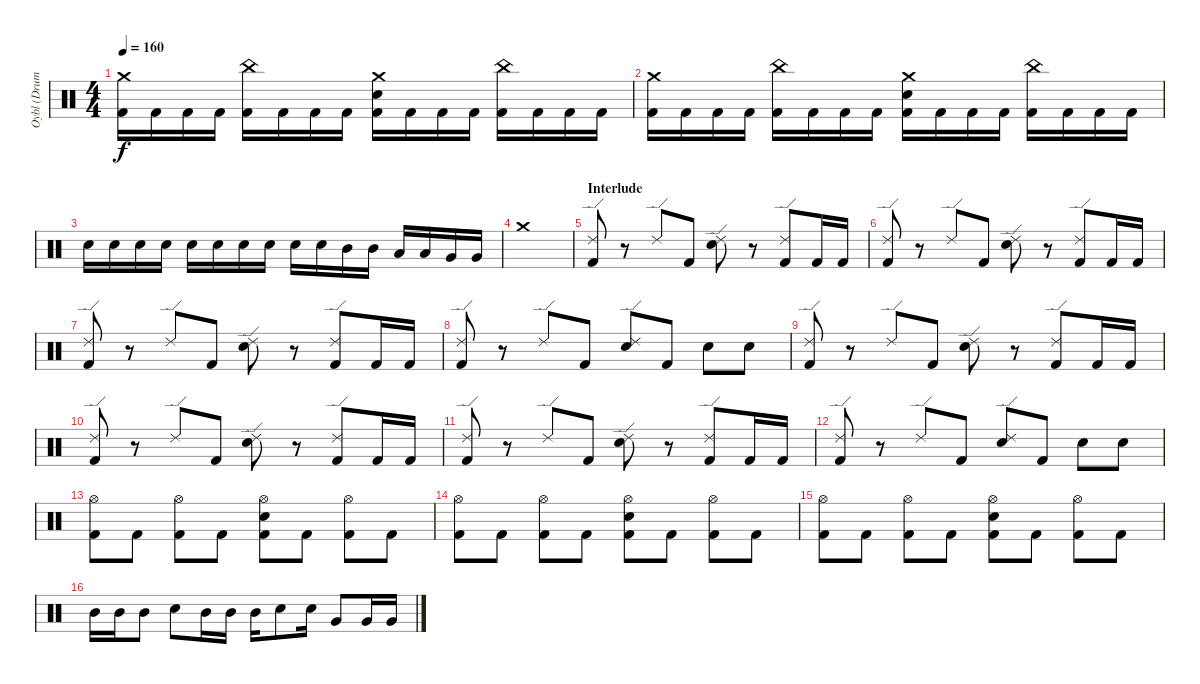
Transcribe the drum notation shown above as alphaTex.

\track ("Oybl (Drums)" "Oybl (Drum") {instrument percussion}
\staff {score}
\articulation defaults
\ts (4 4)
\tempo 160
\clef neutral
\ks c
("Crash medium (hit)" "Kick (hit) 2").16{dy f} "Kick (hit) 2".16 "Kick (hit) 2".16 "Kick (hit) 2".16 ("China (hit)" "Kick (hit) 2").16 "Kick (hit) 2".16 "Kick (hit) 2".16 "Kick (hit) 2".16 ("Crash medium (hit)" "Snare (hit) 2" "Kick (hit) 2").16 "Kick (hit) 2".16 "Kick (hit) 2".16 "Kick (hit) 2".16 ("China (hit)" "Kick (hit) 2").16 "Kick (hit) 2".16 "Kick (hit) 2".16 "Kick (hit) 2".16 |
("Crash medium (hit)" "Kick (hit) 2").16 "Kick (hit) 2".16 "Kick (hit) 2".16 "Kick (hit) 2".16 ("China (hit)" "Kick (hit) 2").16 "Kick (hit) 2".16 "Kick (hit) 2".16 "Kick (hit) 2".16 ("Crash medium (hit)" "Snare (hit) 2" "Kick (hit) 2").16 "Kick (hit) 2".16 "Kick (hit) 2".16 "Kick (hit) 2".16 ("China (hit)" "Kick (hit) 2").16 "Kick (hit) 2".16 "Kick (hit) 2".16 "Kick (hit) 2".16 |
"Snare (hit) 2".16 "Snare (hit) 2".16 "Snare (hit) 2".16 "Snare (hit) 2".16 "Snare (hit) 2".16 "Snare (hit) 2".16 "Snare (hit) 2".16 "Snare (hit) 2".16 "Snare (hit) 2".16 "Snare (hit) 2".16 "Mid Tom (hit)".16 "Mid Tom (hit)".16 "Low Tom (hit)".16 "Low Tom (hit)".16 "Very Low Tom (hit)".16 "Very Low Tom (hit)".16 |
"Crash medium (hit)".1 |
\section ("" "Interlude")
("Ride (edge) 2" "Kick (hit) 2").8 r.8 "Ride (edge) 2".8 "Kick (hit) 2".8 ("Ride (edge) 2" "Snare (hit) 2").8 r.8 ("Ride (edge) 2" "Kick (hit) 2").8 "Kick (hit) 2".16 "Kick (hit) 2".16 |
("Ride (edge) 2" "Kick (hit) 2").8 r.8 "Ride (edge) 2".8 "Kick (hit) 2".8 ("Ride (edge) 2" "Snare (hit) 2").8 r.8 ("Ride (edge) 2" "Kick (hit) 2").8 "Kick (hit) 2".16 "Kick (hit) 2".16 |
("Ride (edge) 2" "Kick (hit) 2").8 r.8 "Ride (edge) 2".8 "Kick (hit) 2".8 ("Ride (edge) 2" "Snare (hit) 2").8 r.8 ("Ride (edge) 2" "Kick (hit) 2").8 "Kick (hit) 2".16 "Kick (hit) 2".16 |
("Ride (edge) 2" "Kick (hit) 2").8 r.8 "Ride (edge) 2".8 "Kick (hit) 2".8 ("Ride (edge) 2" "Snare (hit) 2").8 "Kick (hit) 2".8 "Snare (hit) 2".8 "Snare (hit) 2".8 |
("Ride (edge) 2" "Kick (hit) 2").8 r.8 "Ride (edge) 2".8 "Kick (hit) 2".8 ("Ride (edge) 2" "Snare (hit) 2").8 r.8 ("Ride (edge) 2" "Kick (hit) 2").8 "Kick (hit) 2".16 "Kick (hit) 2".16 |
("Ride (edge) 2" "Kick (hit) 2").8 r.8 "Ride (edge) 2".8 "Kick (hit) 2".8 ("Ride (edge) 2" "Snare (hit) 2").8 r.8 ("Ride (edge) 2" "Kick (hit) 2").8 "Kick (hit) 2".16 "Kick (hit) 2".16 |
("Ride (edge) 2" "Kick (hit) 2").8 r.8 "Ride (edge) 2".8 "Kick (hit) 2".8 ("Ride (edge) 2" "Snare (hit) 2").8 r.8 ("Ride (edge) 2" "Kick (hit) 2").8 "Kick (hit) 2".16 "Kick (hit) 2".16 |
("Ride (edge) 2" "Kick (hit) 2").8 r.8 "Ride (edge) 2".8 "Kick (hit) 2".8 ("Ride (edge) 2" "Snare (hit) 2").8 "Kick (hit) 2".8 "Snare (hit) 2".8 "Snare (hit) 2".8 |
("Hi-Hat (open)" "Kick (hit) 2").8 "Kick (hit) 2".8 ("Hi-Hat (open)" "Kick (hit) 2").8 "Kick (hit) 2".8 ("Hi-Hat (open)" "Snare (hit) 2" "Kick (hit) 2").8 "Kick (hit) 2".8 ("Hi-Hat (open)" "Kick (hit) 2").8 "Kick (hit) 2".8 |
("Hi-Hat (open)" "Kick (hit) 2").8 "Kick (hit) 2".8 ("Hi-Hat (open)" "Kick (hit) 2").8 "Kick (hit) 2".8 ("Hi-Hat (open)" "Snare (hit) 2" "Kick (hit) 2").8 "Kick (hit) 2".8 ("Hi-Hat (open)" "Kick (hit) 2").8 "Kick (hit) 2".8 |
("Hi-Hat (open)" "Kick (hit) 2").8 "Kick (hit) 2".8 ("Hi-Hat (open)" "Kick (hit) 2").8 "Kick (hit) 2".8 ("Hi-Hat (open)" "Snare (hit) 2" "Kick (hit) 2").8 "Kick (hit) 2".8 ("Hi-Hat (open)" "Kick (hit) 2").8 "Kick (hit) 2".8 |
"Mid Tom (hit)".16 "Mid Tom (hit)".16 "Mid Tom (hit)".8 "Snare (hit) 2".8 "Mid Tom (hit)".16 "Mid Tom (hit)".16 "Mid Tom (hit)".16 "Snare (hit) 2".8 "Snare (hit) 2".16 "Very Low Tom (hit)".8 "Very Low Tom (hit)".16 "Very Low Tom (hit)".16
